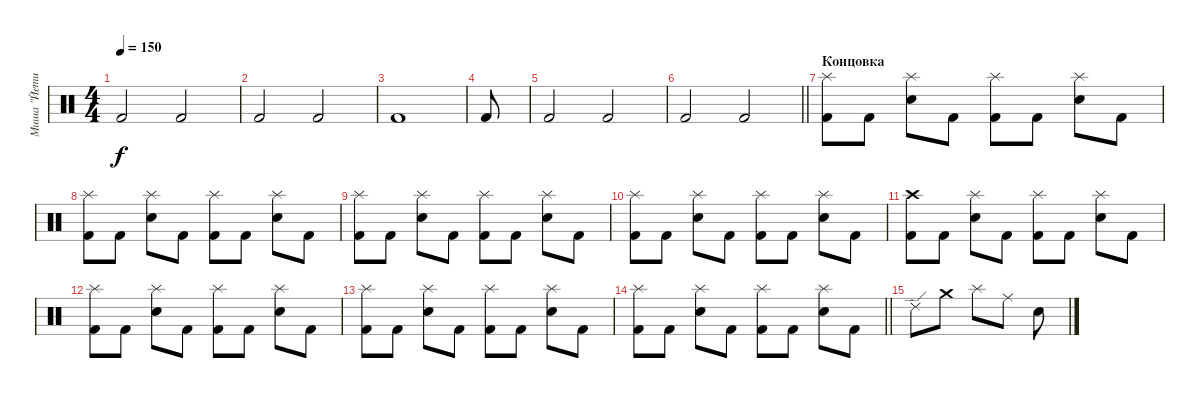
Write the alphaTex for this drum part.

\track ("Миша \"Йети\" Евсеев" "Миша \"Йети") {instrument percussion}
\staff {score}
\articulation defaults
\ts (4 4)
\tempo 150
\clef neutral
\ks c "Kick (hit) 2".2{dy f} "Kick (hit) 2".2
|
"Kick (hit) 2".2 "Kick (hit) 2".2 |
"Kick (hit) 2".1 |
"Kick (hit) 2".8 |
"Kick (hit) 2".2 "Kick (hit) 2".2 |
\barLineRight lightlight "Kick (hit) 2".2 "Kick (hit) 2".2
|
\section ("" "Концовка")
("Kick (hit) 2" "Splash (hit)").8 "Kick (hit) 2".8 ("Snare (hit) 2" "Splash (hit)").8 "Kick (hit) 2".8 ("Kick (hit) 2" "Splash (hit)").8 "Kick (hit) 2".8 ("Snare (hit) 2" "Splash (hit)").8 "Kick (hit) 2".8 |
("Kick (hit) 2" "Splash (hit)").8 "Kick (hit) 2".8 ("Snare (hit) 2" "Splash (hit)").8 "Kick (hit) 2".8 ("Kick (hit) 2" "Splash (hit)").8 "Kick (hit) 2".8 ("Snare (hit) 2" "Splash (hit)").8 "Kick (hit) 2".8 |
("Kick (hit) 2" "Splash (hit)").8 "Kick (hit) 2".8 ("Snare (hit) 2" "Splash (hit)").8 "Kick (hit) 2".8 ("Kick (hit) 2" "Splash (hit)").8 "Kick (hit) 2".8 ("Snare (hit) 2" "Splash (hit)").8 "Kick (hit) 2".8 |
("Kick (hit) 2" "Splash (hit)").8 "Kick (hit) 2".8 ("Snare (hit) 2" "Splash (hit)").8 "Kick (hit) 2".8 ("Kick (hit) 2" "Splash (hit)").8 "Kick (hit) 2".8 ("Snare (hit) 2" "Splash (hit)").8 "Kick (hit) 2".8 |
("Kick (hit) 2" "Crash high (hit)").8 "Kick (hit) 2".8 ("Snare (hit) 2" "Splash (hit)").8 "Kick (hit) 2".8 ("Kick (hit) 2" "Splash (hit)").8 "Kick (hit) 2".8 ("Snare (hit) 2" "Splash (hit)").8 "Kick (hit) 2".8 |
("Kick (hit) 2" "Splash (hit)").8 "Kick (hit) 2".8 ("Snare (hit) 2" "Splash (hit)").8 "Kick (hit) 2".8 ("Kick (hit) 2" "Splash (hit)").8 "Kick (hit) 2".8 ("Snare (hit) 2" "Splash (hit)").8 "Kick (hit) 2".8 |
("Kick (hit) 2" "Splash (hit)").8 "Kick (hit) 2".8 ("Snare (hit) 2" "Splash (hit)").8 "Kick (hit) 2".8 ("Kick (hit) 2" "Splash (hit)").8 "Kick (hit) 2".8 ("Snare (hit) 2" "Splash (hit)").8 "Kick (hit) 2".8 |
\barLineRight lightlight
("Kick (hit) 2" "Splash (hit)").8 "Kick (hit) 2".8 ("Snare (hit) 2" "Splash (hit)").8 "Kick (hit) 2".8 ("Kick (hit) 2" "Splash (hit)").8 "Kick (hit) 2".8 ("Snare (hit) 2" "Splash (hit)").8 "Kick (hit) 2".8 |
"Ride (edge) 2".8 "Crash medium (hit)".8 "Splash (hit)".8 "Ride (middle)".8 "Electric Snare (hit)".8
